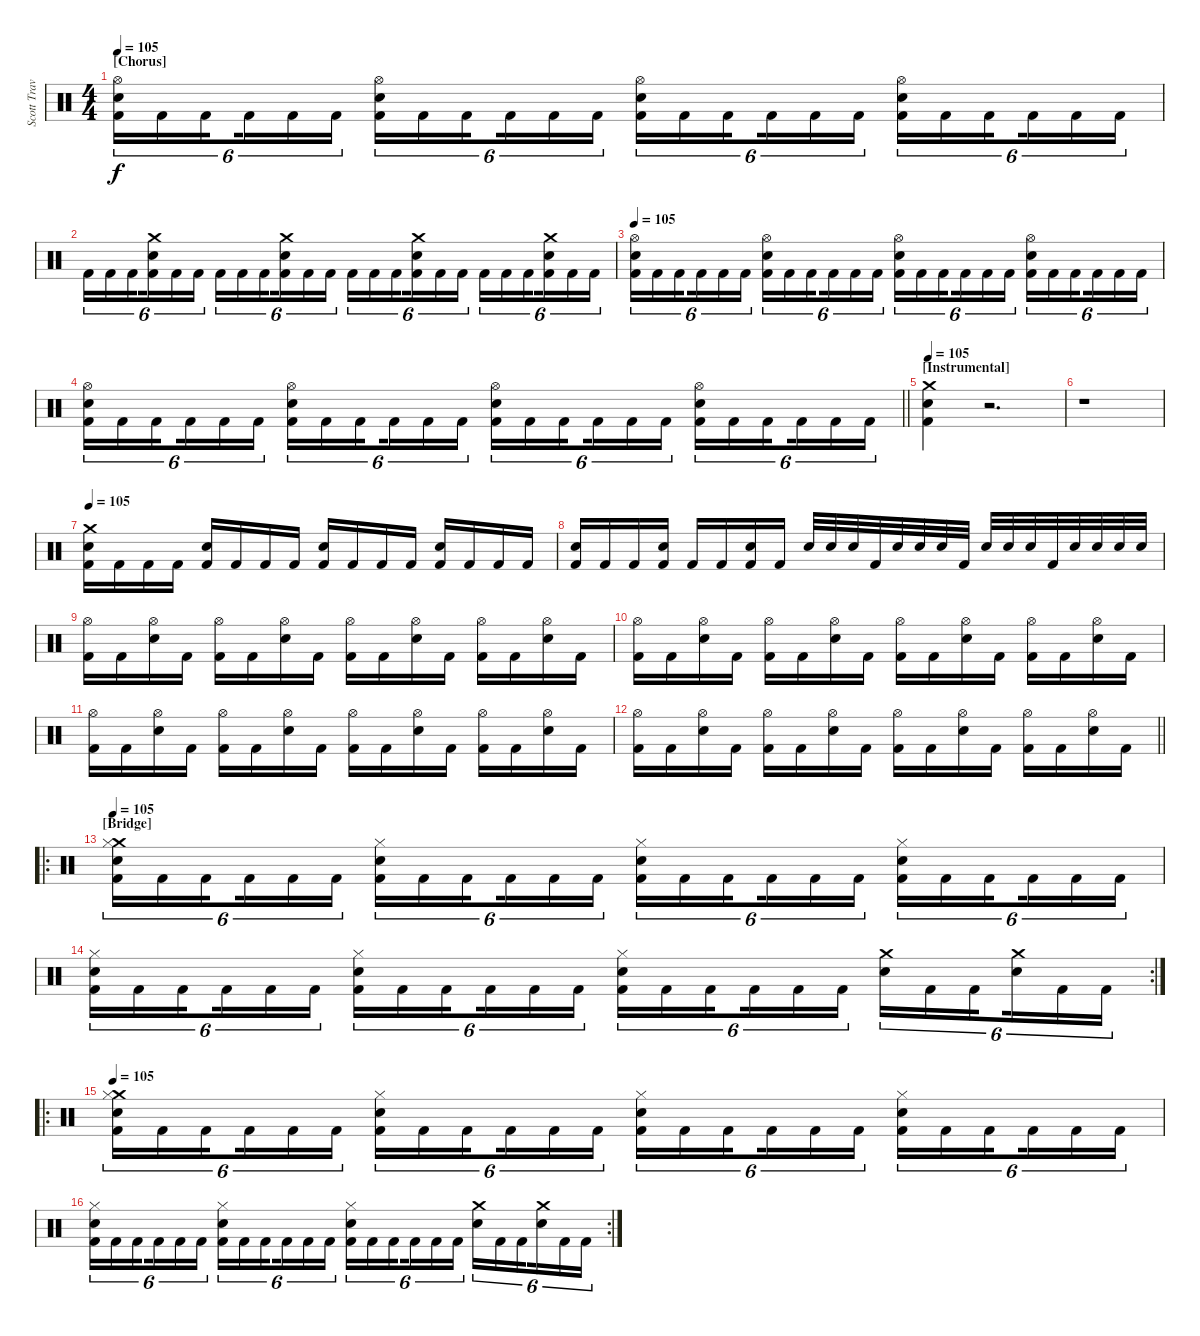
\track ("Scott Travis" "Scott Trav") {instrument percussion}
\staff {score}
\articulation defaults
\ts (4 4)
\section ("" "[Chorus]")
\tempo 105
\clef neutral
\ks c
("Hi-Hat (open)" "Snare (hit) 2" "Kick (hit) 2").16{tu (6 4) dy f} "Kick (hit) 2".16{tu (6 4)} "Kick (hit) 2".16{tu (6 4) beam splitsecondary} "Kick (hit) 2".16{tu (6 4)} "Kick (hit) 2".16{tu (6 4)} "Kick (hit) 2".16{tu (6 4)} ("Hi-Hat (open)" "Snare (hit) 2" "Kick (hit) 2").16{tu (6 4)} "Kick (hit) 2".16{tu (6 4)} "Kick (hit) 2".16{tu (6 4) beam splitsecondary} "Kick (hit) 2".16{tu (6 4)} "Kick (hit) 2".16{tu (6 4)} "Kick (hit) 2".16{tu (6 4)} ("Hi-Hat (open)" "Snare (hit) 2" "Kick (hit) 2").16{tu (6 4)} "Kick (hit) 2".16{tu (6 4)} "Kick (hit) 2".16{tu (6 4) beam splitsecondary} "Kick (hit) 2".16{tu (6 4)} "Kick (hit) 2".16{tu (6 4)} "Kick (hit) 2".16{tu (6 4)} ("Hi-Hat (open)" "Snare (hit) 2" "Kick (hit) 2").16{tu (6 4)} "Kick (hit) 2".16{tu (6 4)} "Kick (hit) 2".16{tu (6 4) beam splitsecondary} "Kick (hit) 2".16{tu (6 4)} "Kick (hit) 2".16{tu (6 4)} "Kick (hit) 2".16{tu (6 4)} |
"Kick (hit) 2".16{tu (6 4)} "Kick (hit) 2".16{tu (6 4)} "Kick (hit) 2".16{tu (6 4) beam splitsecondary} ("Crash medium (hit)" "Snare (hit) 2" "Kick (hit) 2").16{tu (6 4)} "Kick (hit) 2".16{tu (6 4)} "Kick (hit) 2".16{tu (6 4)} "Kick (hit) 2".16{tu (6 4)} "Kick (hit) 2".16{tu (6 4)} "Kick (hit) 2".16{tu (6 4) beam splitsecondary} ("Crash medium (hit)" "Snare (hit) 2" "Kick (hit) 2").16{tu (6 4)} "Kick (hit) 2".16{tu (6 4)} "Kick (hit) 2".16{tu (6 4)} "Kick (hit) 2".16{tu (6 4)} "Kick (hit) 2".16{tu (6 4)} "Kick (hit) 2".16{tu (6 4) beam splitsecondary} ("Crash medium (hit)" "Snare (hit) 2" "Kick (hit) 2").16{tu (6 4)} "Kick (hit) 2".16{tu (6 4)} "Kick (hit) 2".16{tu (6 4)} "Kick (hit) 2".16{tu (6 4)} "Kick (hit) 2".16{tu (6 4)} "Kick (hit) 2".16{tu (6 4) beam splitsecondary} ("Snare (hit) 2" "Crash medium (hit)" "Kick (hit) 2").16{tu (6 4)} "Kick (hit) 2".16{tu (6 4)} "Kick (hit) 2".16{tu (6 4)} |
\tempo 105
("Hi-Hat (open)" "Snare (hit) 2" "Kick (hit) 2").16{tu (6 4)} "Kick (hit) 2".16{tu (6 4)} "Kick (hit) 2".16{tu (6 4) beam splitsecondary} "Kick (hit) 2".16{tu (6 4)} "Kick (hit) 2".16{tu (6 4)} "Kick (hit) 2".16{tu (6 4)} ("Hi-Hat (open)" "Snare (hit) 2" "Kick (hit) 2").16{tu (6 4)} "Kick (hit) 2".16{tu (6 4)} "Kick (hit) 2".16{tu (6 4) beam splitsecondary} "Kick (hit) 2".16{tu (6 4)} "Kick (hit) 2".16{tu (6 4)} "Kick (hit) 2".16{tu (6 4)} ("Hi-Hat (open)" "Snare (hit) 2" "Kick (hit) 2").16{tu (6 4)} "Kick (hit) 2".16{tu (6 4)} "Kick (hit) 2".16{tu (6 4) beam splitsecondary} "Kick (hit) 2".16{tu (6 4)} "Kick (hit) 2".16{tu (6 4)} "Kick (hit) 2".16{tu (6 4)} ("Hi-Hat (open)" "Snare (hit) 2" "Kick (hit) 2").16{tu (6 4)} "Kick (hit) 2".16{tu (6 4)} "Kick (hit) 2".16{tu (6 4) beam splitsecondary} "Kick (hit) 2".16{tu (6 4)} "Kick (hit) 2".16{tu (6 4)} "Kick (hit) 2".16{tu (6 4)} |
\barLineRight lightlight
("Hi-Hat (open)" "Snare (hit) 2" "Kick (hit) 2").16{tu (6 4)} "Kick (hit) 2".16{tu (6 4)} "Kick (hit) 2".16{tu (6 4) beam splitsecondary} "Kick (hit) 2".16{tu (6 4)} "Kick (hit) 2".16{tu (6 4)} "Kick (hit) 2".16{tu (6 4)} ("Hi-Hat (open)" "Snare (hit) 2" "Kick (hit) 2").16{tu (6 4)} "Kick (hit) 2".16{tu (6 4)} "Kick (hit) 2".16{tu (6 4) beam splitsecondary} "Kick (hit) 2".16{tu (6 4)} "Kick (hit) 2".16{tu (6 4)} "Kick (hit) 2".16{tu (6 4)} ("Hi-Hat (open)" "Snare (hit) 2" "Kick (hit) 2").16{tu (6 4)} "Kick (hit) 2".16{tu (6 4)} "Kick (hit) 2".16{tu (6 4) beam splitsecondary} "Kick (hit) 2".16{tu (6 4)} "Kick (hit) 2".16{tu (6 4)} "Kick (hit) 2".16{tu (6 4)} ("Hi-Hat (open)" "Snare (hit) 2" "Kick (hit) 2").16{tu (6 4)} "Kick (hit) 2".16{tu (6 4)} "Kick (hit) 2".16{tu (6 4) beam splitsecondary} "Kick (hit) 2".16{tu (6 4)} "Kick (hit) 2".16{tu (6 4)} "Kick (hit) 2".16{tu (6 4)} |
\section ("" "[Instrumental]")
\tempo 105
("Crash medium (hit)" "Snare (hit) 2" "Kick (hit) 2").4 r.2{d} |
r.1 |
\tempo 105
("Crash medium (hit)" "Snare (hit) 2" "Kick (hit) 2").16 "Kick (hit) 2".16 "Kick (hit) 2".16 "Kick (hit) 2".16 ("Snare (hit) 2" "Kick (hit) 2").16 "Kick (hit) 2".16 "Kick (hit) 2".16 "Kick (hit) 2".16 ("Snare (hit) 2" "Kick (hit) 2").16 "Kick (hit) 2".16 "Kick (hit) 2".16 "Kick (hit) 2".16 ("Snare (hit) 2" "Kick (hit) 2").16 "Kick (hit) 2".16 "Kick (hit) 2".16 "Kick (hit) 2".16 |
("Snare (hit) 2" "Kick (hit) 2").16 "Kick (hit) 2".16 "Kick (hit) 2".16 ("Snare (hit) 2" "Kick (hit) 2").16 "Kick (hit) 2".16 "Kick (hit) 2".16 ("Snare (hit) 2" "Kick (hit) 2").16 "Kick (hit) 2".16 "Snare (hit) 2".32 "Snare (hit) 2".32 "Snare (hit) 2".32 "Kick (hit) 2".32 "Snare (hit) 2".32 "Snare (hit) 2".32 "Snare (hit) 2".32 "Kick (hit) 2".32 "Snare (hit) 2".32 "Snare (hit) 2".32 "Snare (hit) 2".32 "Kick (hit) 2".32 "Snare (hit) 2".32 "Snare (hit) 2".32 "Snare (hit) 2".32 "Snare (hit) 2".32 |
("Hi-Hat (open)" "Kick (hit) 2").16 "Kick (hit) 2".16 ("Hi-Hat (open)" "Snare (hit) 2").16 "Kick (hit) 2".16 ("Hi-Hat (open)" "Kick (hit) 2").16 "Kick (hit) 2".16 ("Hi-Hat (open)" "Snare (hit) 2").16 "Kick (hit) 2".16 ("Hi-Hat (open)" "Kick (hit) 2").16 "Kick (hit) 2".16 ("Hi-Hat (open)" "Snare (hit) 2").16 "Kick (hit) 2".16 ("Hi-Hat (open)" "Kick (hit) 2").16 "Kick (hit) 2".16 ("Hi-Hat (open)" "Snare (hit) 2").16 "Kick (hit) 2".16 |
("Hi-Hat (open)" "Kick (hit) 2").16 "Kick (hit) 2".16 ("Hi-Hat (open)" "Snare (hit) 2").16 "Kick (hit) 2".16 ("Hi-Hat (open)" "Kick (hit) 2").16 "Kick (hit) 2".16 ("Hi-Hat (open)" "Snare (hit) 2").16 "Kick (hit) 2".16 ("Hi-Hat (open)" "Kick (hit) 2").16 "Kick (hit) 2".16 ("Hi-Hat (open)" "Snare (hit) 2").16 "Kick (hit) 2".16 ("Hi-Hat (open)" "Kick (hit) 2").16 "Kick (hit) 2".16 ("Hi-Hat (open)" "Snare (hit) 2").16 "Kick (hit) 2".16 |
("Hi-Hat (open)" "Kick (hit) 2").16 "Kick (hit) 2".16 ("Hi-Hat (open)" "Snare (hit) 2").16 "Kick (hit) 2".16 ("Hi-Hat (open)" "Kick (hit) 2").16 "Kick (hit) 2".16 ("Hi-Hat (open)" "Snare (hit) 2").16 "Kick (hit) 2".16 ("Hi-Hat (open)" "Kick (hit) 2").16 "Kick (hit) 2".16 ("Hi-Hat (open)" "Snare (hit) 2").16 "Kick (hit) 2".16 ("Hi-Hat (open)" "Kick (hit) 2").16 "Kick (hit) 2".16 ("Hi-Hat (open)" "Snare (hit) 2").16 "Kick (hit) 2".16 |
\barLineRight lightlight
("Hi-Hat (open)" "Kick (hit) 2").16 "Kick (hit) 2".16 ("Hi-Hat (open)" "Snare (hit) 2").16 "Kick (hit) 2".16 ("Hi-Hat (open)" "Kick (hit) 2").16 "Kick (hit) 2".16 ("Hi-Hat (open)" "Snare (hit) 2").16 "Kick (hit) 2".16 ("Hi-Hat (open)" "Kick (hit) 2").16 "Kick (hit) 2".16 ("Hi-Hat (open)" "Snare (hit) 2").16 "Kick (hit) 2".16 ("Hi-Hat (open)" "Kick (hit) 2").16 "Kick (hit) 2".16 ("Hi-Hat (open)" "Snare (hit) 2").16 "Kick (hit) 2".16 |
\ro
\section ("" "[Bridge]")
\tempo 105
("Crash medium (hit)" "Hi-Hat (closed)" "Snare (hit) 2" "Kick (hit) 2").16{tu (6 4)} "Kick (hit) 2".16{tu (6 4)} "Kick (hit) 2".16{tu (6 4) beam splitsecondary} "Kick (hit) 2".16{tu (6 4)} "Kick (hit) 2".16{tu (6 4)} "Kick (hit) 2".16{tu (6 4)} ("Hi-Hat (closed)" "Snare (hit) 2" "Kick (hit) 2").16{tu (6 4)} "Kick (hit) 2".16{tu (6 4)} "Kick (hit) 2".16{tu (6 4) beam splitsecondary} "Kick (hit) 2".16{tu (6 4)} "Kick (hit) 2".16{tu (6 4)} "Kick (hit) 2".16{tu (6 4)} ("Hi-Hat (closed)" "Snare (hit) 2" "Kick (hit) 2").16{tu (6 4)} "Kick (hit) 2".16{tu (6 4)} "Kick (hit) 2".16{tu (6 4) beam splitsecondary} "Kick (hit) 2".16{tu (6 4)} "Kick (hit) 2".16{tu (6 4)} "Kick (hit) 2".16{tu (6 4)} ("Hi-Hat (closed)" "Snare (hit) 2" "Kick (hit) 2").16{tu (6 4)} "Kick (hit) 2".16{tu (6 4)} "Kick (hit) 2".16{tu (6 4) beam splitsecondary} "Kick (hit) 2".16{tu (6 4)} "Kick (hit) 2".16{tu (6 4)} "Kick (hit) 2".16{tu (6 4)} |
\rc 2
("Hi-Hat (closed)" "Snare (hit) 2" "Kick (hit) 2").16{tu (6 4)} "Kick (hit) 2".16{tu (6 4)} "Kick (hit) 2".16{tu (6 4) beam splitsecondary} "Kick (hit) 2".16{tu (6 4)} "Kick (hit) 2".16{tu (6 4)} "Kick (hit) 2".16{tu (6 4)} ("Hi-Hat (closed)" "Snare (hit) 2" "Kick (hit) 2").16{tu (6 4)} "Kick (hit) 2".16{tu (6 4)} "Kick (hit) 2".16{tu (6 4) beam splitsecondary} "Kick (hit) 2".16{tu (6 4)} "Kick (hit) 2".16{tu (6 4)} "Kick (hit) 2".16{tu (6 4)} ("Hi-Hat (closed)" "Snare (hit) 2" "Kick (hit) 2").16{tu (6 4)} "Kick (hit) 2".16{tu (6 4)} "Kick (hit) 2".16{tu (6 4) beam splitsecondary} "Kick (hit) 2".16{tu (6 4)} "Kick (hit) 2".16{tu (6 4)} "Kick (hit) 2".16{tu (6 4)} ("Crash medium (hit)" "Snare (hit) 2").16{tu (6 4)} "Kick (hit) 2".16{tu (6 4)} "Kick (hit) 2".16{tu (6 4) beam splitsecondary} ("Crash medium (hit)" "Snare (hit) 2").16{tu (6 4)} "Kick (hit) 2".16{tu (6 4)} "Kick (hit) 2".16{tu (6 4)} |
\ro
\tempo 105
("Crash medium (hit)" "Hi-Hat (closed)" "Snare (hit) 2" "Kick (hit) 2").16{tu (6 4)} "Kick (hit) 2".16{tu (6 4)} "Kick (hit) 2".16{tu (6 4) beam splitsecondary} "Kick (hit) 2".16{tu (6 4)} "Kick (hit) 2".16{tu (6 4)} "Kick (hit) 2".16{tu (6 4)} ("Hi-Hat (closed)" "Snare (hit) 2" "Kick (hit) 2").16{tu (6 4)} "Kick (hit) 2".16{tu (6 4)} "Kick (hit) 2".16{tu (6 4) beam splitsecondary} "Kick (hit) 2".16{tu (6 4)} "Kick (hit) 2".16{tu (6 4)} "Kick (hit) 2".16{tu (6 4)} ("Hi-Hat (closed)" "Snare (hit) 2" "Kick (hit) 2").16{tu (6 4)} "Kick (hit) 2".16{tu (6 4)} "Kick (hit) 2".16{tu (6 4) beam splitsecondary} "Kick (hit) 2".16{tu (6 4)} "Kick (hit) 2".16{tu (6 4)} "Kick (hit) 2".16{tu (6 4)} ("Hi-Hat (closed)" "Snare (hit) 2" "Kick (hit) 2").16{tu (6 4)} "Kick (hit) 2".16{tu (6 4)} "Kick (hit) 2".16{tu (6 4) beam splitsecondary} "Kick (hit) 2".16{tu (6 4)} "Kick (hit) 2".16{tu (6 4)} "Kick (hit) 2".16{tu (6 4)} |
\rc 2
("Hi-Hat (closed)" "Snare (hit) 2" "Kick (hit) 2").16{tu (6 4)} "Kick (hit) 2".16{tu (6 4)} "Kick (hit) 2".16{tu (6 4) beam splitsecondary} "Kick (hit) 2".16{tu (6 4)} "Kick (hit) 2".16{tu (6 4)} "Kick (hit) 2".16{tu (6 4)} ("Hi-Hat (closed)" "Snare (hit) 2" "Kick (hit) 2").16{tu (6 4)} "Kick (hit) 2".16{tu (6 4)} "Kick (hit) 2".16{tu (6 4) beam splitsecondary} "Kick (hit) 2".16{tu (6 4)} "Kick (hit) 2".16{tu (6 4)} "Kick (hit) 2".16{tu (6 4)} ("Hi-Hat (closed)" "Snare (hit) 2" "Kick (hit) 2").16{tu (6 4)} "Kick (hit) 2".16{tu (6 4)} "Kick (hit) 2".16{tu (6 4) beam splitsecondary} "Kick (hit) 2".16{tu (6 4)} "Kick (hit) 2".16{tu (6 4)} "Kick (hit) 2".16{tu (6 4)} ("Crash medium (hit)" "Snare (hit) 2").16{tu (6 4)} "Kick (hit) 2".16{tu (6 4)} "Kick (hit) 2".16{tu (6 4) beam splitsecondary} ("Crash medium (hit)" "Snare (hit) 2").16{tu (6 4)} "Kick (hit) 2".16{tu (6 4)} "Kick (hit) 2".16{tu (6 4)}
